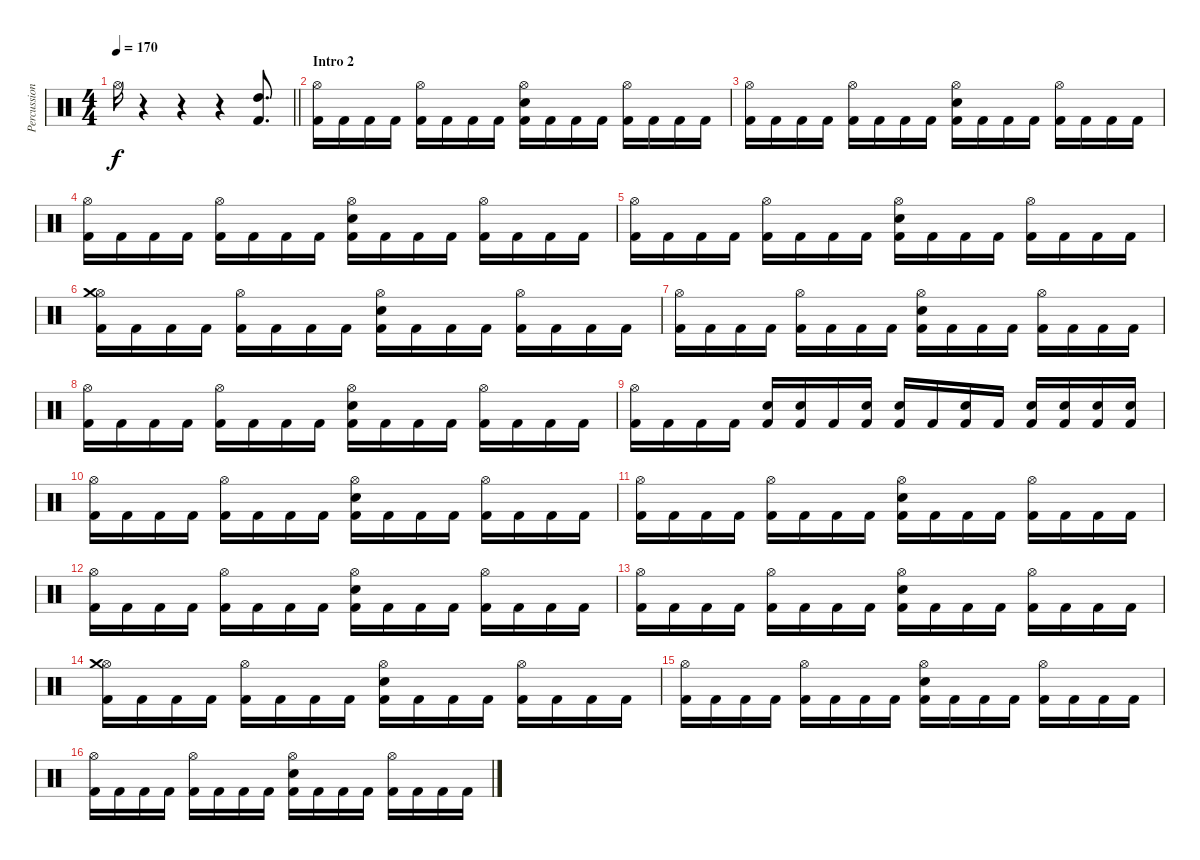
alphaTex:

\track ("Percussion" "Percussion") {instrument percussion}
\staff {score}
\articulation defaults
\ts (4 4)
\tempo 170
\clef neutral
\barLineRight lightlight
\ks c "Hi-Hat (open)".16{dy f}
r.4 r.4 r.4 ("High Tom (hit)" "Kick (hit) 2").8{d} |
\section ("" "Intro 2")
("Hi-Hat (open)" "Kick (hit) 2").16 "Kick (hit) 2".16 "Kick (hit) 2".16 "Kick (hit) 2".16 ("Hi-Hat (open)" "Kick (hit) 2").16 "Kick (hit) 2".16 "Kick (hit) 2".16 "Kick (hit) 2".16 ("Hi-Hat (open)" "Snare (hit) 2" "Kick (hit) 2").16 "Kick (hit) 2".16 "Kick (hit) 2".16 "Kick (hit) 2".16 ("Hi-Hat (open)" "Kick (hit) 2").16 "Kick (hit) 2".16 "Kick (hit) 2".16 "Kick (hit) 2".16 |
("Hi-Hat (open)" "Kick (hit) 2").16 "Kick (hit) 2".16 "Kick (hit) 2".16 "Kick (hit) 2".16 ("Hi-Hat (open)" "Kick (hit) 2").16 "Kick (hit) 2".16 "Kick (hit) 2".16 "Kick (hit) 2".16 ("Hi-Hat (open)" "Snare (hit) 2" "Kick (hit) 2").16 "Kick (hit) 2".16 "Kick (hit) 2".16 "Kick (hit) 2".16 ("Hi-Hat (open)" "Kick (hit) 2").16 "Kick (hit) 2".16 "Kick (hit) 2".16 "Kick (hit) 2".16 |
("Hi-Hat (open)" "Kick (hit) 2").16 "Kick (hit) 2".16 "Kick (hit) 2".16 "Kick (hit) 2".16 ("Hi-Hat (open)" "Kick (hit) 2").16 "Kick (hit) 2".16 "Kick (hit) 2".16 "Kick (hit) 2".16 ("Hi-Hat (open)" "Snare (hit) 2" "Kick (hit) 2").16 "Kick (hit) 2".16 "Kick (hit) 2".16 "Kick (hit) 2".16 ("Hi-Hat (open)" "Kick (hit) 2").16 "Kick (hit) 2".16 "Kick (hit) 2".16 "Kick (hit) 2".16 |
("Hi-Hat (open)" "Kick (hit) 2").16 "Kick (hit) 2".16 "Kick (hit) 2".16 "Kick (hit) 2".16 ("Hi-Hat (open)" "Kick (hit) 2").16 "Kick (hit) 2".16 "Kick (hit) 2".16 "Kick (hit) 2".16 ("Hi-Hat (open)" "Snare (hit) 2" "Kick (hit) 2").16 "Kick (hit) 2".16 "Kick (hit) 2".16 "Kick (hit) 2".16 ("Hi-Hat (open)" "Kick (hit) 2").16 "Kick (hit) 2".16 "Kick (hit) 2".16 "Kick (hit) 2".16 |
("Hi-Hat (open)" "Crash medium (hit)" "Kick (hit) 2").16 "Kick (hit) 2".16 "Kick (hit) 2".16 "Kick (hit) 2".16 ("Hi-Hat (open)" "Kick (hit) 2").16 "Kick (hit) 2".16 "Kick (hit) 2".16 "Kick (hit) 2".16 ("Hi-Hat (open)" "Snare (hit) 2" "Kick (hit) 2").16 "Kick (hit) 2".16 "Kick (hit) 2".16 "Kick (hit) 2".16 ("Hi-Hat (open)" "Kick (hit) 2").16 "Kick (hit) 2".16 "Kick (hit) 2".16 "Kick (hit) 2".16 |
("Hi-Hat (open)" "Kick (hit) 2").16 "Kick (hit) 2".16 "Kick (hit) 2".16 "Kick (hit) 2".16 ("Hi-Hat (open)" "Kick (hit) 2").16 "Kick (hit) 2".16 "Kick (hit) 2".16 "Kick (hit) 2".16 ("Hi-Hat (open)" "Snare (hit) 2" "Kick (hit) 2").16 "Kick (hit) 2".16 "Kick (hit) 2".16 "Kick (hit) 2".16 ("Hi-Hat (open)" "Kick (hit) 2").16 "Kick (hit) 2".16 "Kick (hit) 2".16 "Kick (hit) 2".16 |
("Hi-Hat (open)" "Kick (hit) 2").16 "Kick (hit) 2".16 "Kick (hit) 2".16 "Kick (hit) 2".16 ("Hi-Hat (open)" "Kick (hit) 2").16 "Kick (hit) 2".16 "Kick (hit) 2".16 "Kick (hit) 2".16 ("Hi-Hat (open)" "Snare (hit) 2" "Kick (hit) 2").16 "Kick (hit) 2".16 "Kick (hit) 2".16 "Kick (hit) 2".16 ("Hi-Hat (open)" "Kick (hit) 2").16 "Kick (hit) 2".16 "Kick (hit) 2".16 "Kick (hit) 2".16 |
("Hi-Hat (open)" "Kick (hit) 2").16 "Kick (hit) 2".16 "Kick (hit) 2".16 "Kick (hit) 2".16 ("Snare (hit) 2" "Kick (hit) 2").16 ("Snare (hit) 2" "Kick (hit) 2").16 "Kick (hit) 2".16 ("Snare (hit) 2" "Kick (hit) 2").16 ("Snare (hit) 2" "Kick (hit) 2").16 "Kick (hit) 2".16 ("Snare (hit) 2" "Kick (hit) 2").16 "Kick (hit) 2".16 ("Snare (hit) 2" "Kick (hit) 2").16 ("Snare (hit) 2" "Kick (hit) 2").16 ("Snare (hit) 2" "Kick (hit) 2").16 ("Snare (hit) 2" "Kick (hit) 2").16 |
("Hi-Hat (open)" "Kick (hit) 2").16 "Kick (hit) 2".16 "Kick (hit) 2".16 "Kick (hit) 2".16 ("Hi-Hat (open)" "Kick (hit) 2").16 "Kick (hit) 2".16 "Kick (hit) 2".16 "Kick (hit) 2".16 ("Hi-Hat (open)" "Snare (hit) 2" "Kick (hit) 2").16 "Kick (hit) 2".16 "Kick (hit) 2".16 "Kick (hit) 2".16 ("Hi-Hat (open)" "Kick (hit) 2").16 "Kick (hit) 2".16 "Kick (hit) 2".16 "Kick (hit) 2".16 |
("Hi-Hat (open)" "Kick (hit) 2").16 "Kick (hit) 2".16 "Kick (hit) 2".16 "Kick (hit) 2".16 ("Hi-Hat (open)" "Kick (hit) 2").16 "Kick (hit) 2".16 "Kick (hit) 2".16 "Kick (hit) 2".16 ("Hi-Hat (open)" "Snare (hit) 2" "Kick (hit) 2").16 "Kick (hit) 2".16 "Kick (hit) 2".16 "Kick (hit) 2".16 ("Hi-Hat (open)" "Kick (hit) 2").16 "Kick (hit) 2".16 "Kick (hit) 2".16 "Kick (hit) 2".16 |
("Hi-Hat (open)" "Kick (hit) 2").16 "Kick (hit) 2".16 "Kick (hit) 2".16 "Kick (hit) 2".16 ("Hi-Hat (open)" "Kick (hit) 2").16 "Kick (hit) 2".16 "Kick (hit) 2".16 "Kick (hit) 2".16 ("Hi-Hat (open)" "Snare (hit) 2" "Kick (hit) 2").16 "Kick (hit) 2".16 "Kick (hit) 2".16 "Kick (hit) 2".16 ("Hi-Hat (open)" "Kick (hit) 2").16 "Kick (hit) 2".16 "Kick (hit) 2".16 "Kick (hit) 2".16 |
("Hi-Hat (open)" "Kick (hit) 2").16 "Kick (hit) 2".16 "Kick (hit) 2".16 "Kick (hit) 2".16 ("Hi-Hat (open)" "Kick (hit) 2").16 "Kick (hit) 2".16 "Kick (hit) 2".16 "Kick (hit) 2".16 ("Hi-Hat (open)" "Snare (hit) 2" "Kick (hit) 2").16 "Kick (hit) 2".16 "Kick (hit) 2".16 "Kick (hit) 2".16 ("Hi-Hat (open)" "Kick (hit) 2").16 "Kick (hit) 2".16 "Kick (hit) 2".16 "Kick (hit) 2".16 |
("Hi-Hat (open)" "Crash medium (hit)" "Kick (hit) 2").16 "Kick (hit) 2".16 "Kick (hit) 2".16 "Kick (hit) 2".16 ("Hi-Hat (open)" "Kick (hit) 2").16 "Kick (hit) 2".16 "Kick (hit) 2".16 "Kick (hit) 2".16 ("Hi-Hat (open)" "Snare (hit) 2" "Kick (hit) 2").16 "Kick (hit) 2".16 "Kick (hit) 2".16 "Kick (hit) 2".16 ("Hi-Hat (open)" "Kick (hit) 2").16 "Kick (hit) 2".16 "Kick (hit) 2".16 "Kick (hit) 2".16 |
("Hi-Hat (open)" "Kick (hit) 2").16 "Kick (hit) 2".16 "Kick (hit) 2".16 "Kick (hit) 2".16 ("Hi-Hat (open)" "Kick (hit) 2").16 "Kick (hit) 2".16 "Kick (hit) 2".16 "Kick (hit) 2".16 ("Hi-Hat (open)" "Snare (hit) 2" "Kick (hit) 2").16 "Kick (hit) 2".16 "Kick (hit) 2".16 "Kick (hit) 2".16 ("Hi-Hat (open)" "Kick (hit) 2").16 "Kick (hit) 2".16 "Kick (hit) 2".16 "Kick (hit) 2".16 |
("Hi-Hat (open)" "Kick (hit) 2").16 "Kick (hit) 2".16 "Kick (hit) 2".16 "Kick (hit) 2".16 ("Hi-Hat (open)" "Kick (hit) 2").16 "Kick (hit) 2".16 "Kick (hit) 2".16 "Kick (hit) 2".16 ("Hi-Hat (open)" "Snare (hit) 2" "Kick (hit) 2").16 "Kick (hit) 2".16 "Kick (hit) 2".16 "Kick (hit) 2".16 ("Hi-Hat (open)" "Kick (hit) 2").16 "Kick (hit) 2".16 "Kick (hit) 2".16 "Kick (hit) 2".16
